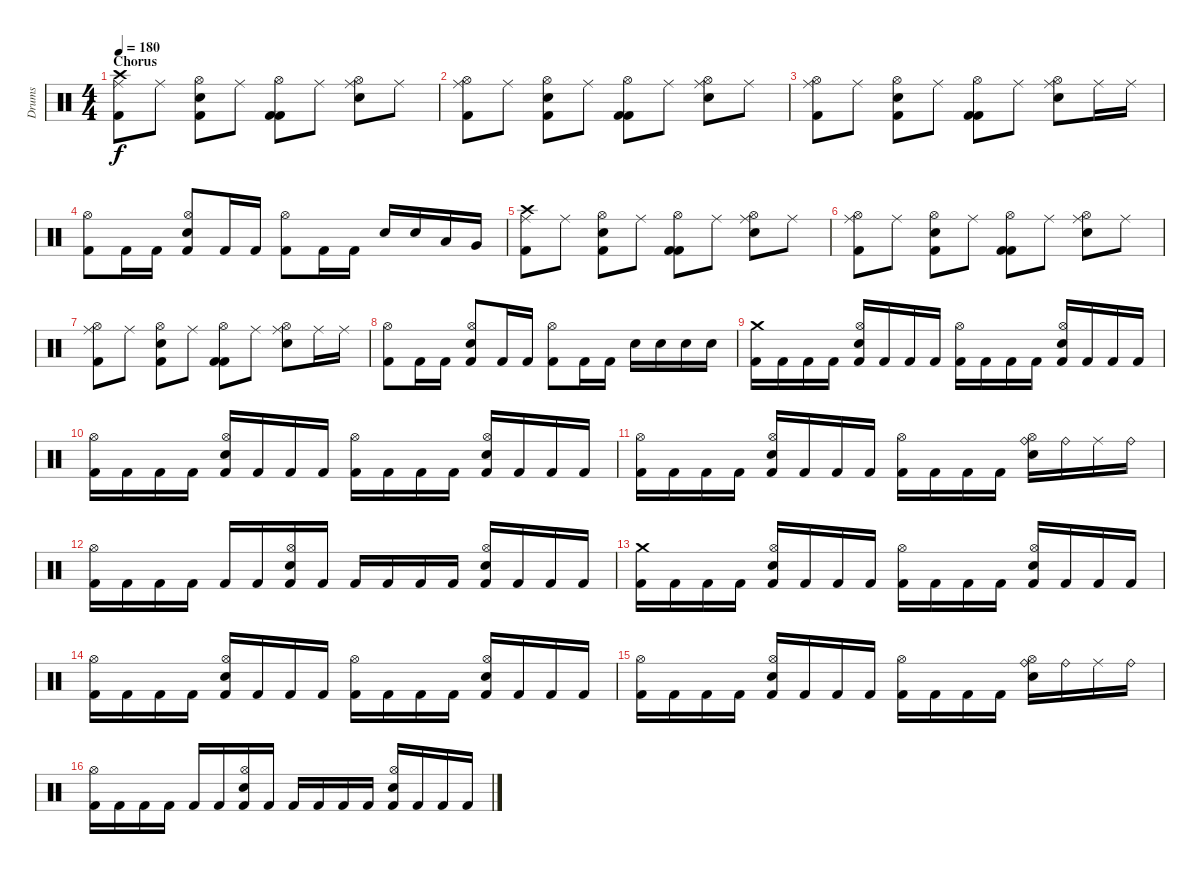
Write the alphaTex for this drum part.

\track ("Drums" "Drums") {instrument percussion}
\staff {score}
\articulation defaults
\ts (4 4)
\section ("" "Chorus")
\tempo 180
\clef neutral
\ks c
("Ride (middle)" "Crash high (hit)" "Kick (hit) 2").8{dy f} "Ride (middle)".8 ("Kick (hit) 2" "Hi-Hat (open)" "Electric Snare (hit)").8 "Ride (middle)".8 ("Kick (hit) 2" "Hi-Hat (open)" "Kick (hit) 2").8 "Ride (middle)".8 ("Ride (middle)" "Hi-Hat (open)" "Electric Snare (hit)").8 "Ride (middle)".8 |
("Ride (middle)" "Hi-Hat (open)" "Kick (hit) 2").8 "Ride (middle)".8 ("Kick (hit) 2" "Hi-Hat (open)" "Electric Snare (hit)").8 "Ride (middle)".8 ("Kick (hit) 2" "Hi-Hat (open)" "Kick (hit) 2").8 "Ride (middle)".8 ("Ride (middle)" "Hi-Hat (open)" "Electric Snare (hit)").8 "Ride (middle)".8 |
("Ride (middle)" "Hi-Hat (open)" "Kick (hit) 2").8 "Ride (middle)".8 ("Kick (hit) 2" "Hi-Hat (open)" "Electric Snare (hit)").8 "Ride (middle)".8 ("Kick (hit) 2" "Hi-Hat (open)" "Kick (hit) 2").8 "Ride (middle)".8 ("Ride (middle)" "Hi-Hat (open)" "Electric Snare (hit)").8 "Ride (middle)".16 "Ride (middle)".16 |
("Kick (hit) 2" "Hi-Hat (open)").8 "Kick (hit) 2".16 "Kick (hit) 2".16 ("Kick (hit) 2" "Electric Snare (hit)" "Hi-Hat (open)").8 "Kick (hit) 2".16 "Kick (hit) 2".16 ("Kick (hit) 2" "Hi-Hat (open)").8 "Kick (hit) 2".16 "Kick (hit) 2".16 "Electric Snare (hit)".16 "Electric Snare (hit)".16 "Low Tom (hit)".16 "Very Low Tom (hit)".16 |
("Ride (middle)" "Crash high (hit)" "Kick (hit) 2").8 "Ride (middle)".8 ("Kick (hit) 2" "Hi-Hat (open)" "Electric Snare (hit)").8 "Ride (middle)".8 ("Kick (hit) 2" "Hi-Hat (open)" "Kick (hit) 2").8 "Ride (middle)".8 ("Ride (middle)" "Hi-Hat (open)" "Electric Snare (hit)").8 "Ride (middle)".8 |
("Ride (middle)" "Hi-Hat (open)" "Kick (hit) 2").8 "Ride (middle)".8 ("Kick (hit) 2" "Hi-Hat (open)" "Electric Snare (hit)").8 "Ride (middle)".8 ("Kick (hit) 2" "Hi-Hat (open)" "Kick (hit) 2").8 "Ride (middle)".8 ("Ride (middle)" "Hi-Hat (open)" "Electric Snare (hit)").8 "Ride (middle)".8 |
("Ride (middle)" "Hi-Hat (open)" "Kick (hit) 2").8 "Ride (middle)".8 ("Kick (hit) 2" "Hi-Hat (open)" "Electric Snare (hit)").8 "Ride (middle)".8 ("Kick (hit) 2" "Hi-Hat (open)" "Kick (hit) 2").8 "Ride (middle)".8 ("Ride (middle)" "Hi-Hat (open)" "Electric Snare (hit)").8 "Ride (middle)".16 "Ride (middle)".16 |
("Kick (hit) 2" "Hi-Hat (open)").8 "Kick (hit) 2".16 "Kick (hit) 2".16 ("Kick (hit) 2" "Electric Snare (hit)" "Hi-Hat (open)").8 "Kick (hit) 2".16 "Kick (hit) 2".16 ("Kick (hit) 2" "Hi-Hat (open)").8 "Kick (hit) 2".16 "Kick (hit) 2".16 "Electric Snare (hit)".16 "Electric Snare (hit)".16 "Electric Snare (hit)".16 "Electric Snare (hit)".16 |
("Kick (hit) 2" "Crash medium (hit)").16 "Kick (hit) 2".16 "Kick (hit) 2".16 "Kick (hit) 2".16 ("Kick (hit) 2" "Hi-Hat (open)" "Electric Snare (hit)").16 "Kick (hit) 2".16 "Kick (hit) 2".16 "Kick (hit) 2".16 ("Kick (hit) 2" "Hi-Hat (open)").16 "Kick (hit) 2".16 "Kick (hit) 2".16 "Kick (hit) 2".16 ("Kick (hit) 2" "Hi-Hat (open)" "Electric Snare (hit)").16 "Kick (hit) 2".16 "Kick (hit) 2".16 "Kick (hit) 2".16 |
("Kick (hit) 2" "Hi-Hat (open)").16 "Kick (hit) 2".16 "Kick (hit) 2".16 "Kick (hit) 2".16 ("Kick (hit) 2" "Hi-Hat (open)" "Electric Snare (hit)").16 "Kick (hit) 2".16 "Kick (hit) 2".16 "Kick (hit) 2".16 ("Kick (hit) 2" "Hi-Hat (open)").16 "Kick (hit) 2".16 "Kick (hit) 2".16 "Kick (hit) 2".16 ("Kick (hit) 2" "Hi-Hat (open)" "Electric Snare (hit)").16 "Kick (hit) 2".16 "Kick (hit) 2".16 "Kick (hit) 2".16 |
("Kick (hit) 2" "Hi-Hat (open)").16 "Kick (hit) 2".16 "Kick (hit) 2".16 "Kick (hit) 2".16 ("Kick (hit) 2" "Hi-Hat (open)" "Electric Snare (hit)").16 "Kick (hit) 2".16 "Kick (hit) 2".16 "Kick (hit) 2".16 ("Kick (hit) 2" "Hi-Hat (open)").16 "Kick (hit) 2".16 "Kick (hit) 2".16 "Kick (hit) 2".16 ("Ride (bell)" "Hi-Hat (open)" "Electric Snare (hit)").16 "Ride (bell)".16 "Ride (middle)".16 "Ride (bell)".16 |
("Kick (hit) 2" "Hi-Hat (open)").16 "Kick (hit) 2".16 "Kick (hit) 2".16 "Kick (hit) 2".16 "Kick (hit) 2".16 "Kick (hit) 2".16 ("Kick (hit) 2" "Hi-Hat (open)" "Electric Snare (hit)").16 "Kick (hit) 2".16 "Kick (hit) 2".16 "Kick (hit) 2".16 "Kick (hit) 2".16 "Kick (hit) 2".16 ("Kick (hit) 2" "Hi-Hat (open)" "Electric Snare (hit)").16 "Kick (hit) 2".16 "Kick (hit) 2".16 "Kick (hit) 2".16 |
("Kick (hit) 2" "Crash medium (hit)").16 "Kick (hit) 2".16 "Kick (hit) 2".16 "Kick (hit) 2".16 ("Kick (hit) 2" "Hi-Hat (open)" "Electric Snare (hit)").16 "Kick (hit) 2".16 "Kick (hit) 2".16 "Kick (hit) 2".16 ("Kick (hit) 2" "Hi-Hat (open)").16 "Kick (hit) 2".16 "Kick (hit) 2".16 "Kick (hit) 2".16 ("Kick (hit) 2" "Hi-Hat (open)" "Electric Snare (hit)").16 "Kick (hit) 2".16 "Kick (hit) 2".16 "Kick (hit) 2".16 |
("Kick (hit) 2" "Hi-Hat (open)").16 "Kick (hit) 2".16 "Kick (hit) 2".16 "Kick (hit) 2".16 ("Kick (hit) 2" "Hi-Hat (open)" "Electric Snare (hit)").16 "Kick (hit) 2".16 "Kick (hit) 2".16 "Kick (hit) 2".16 ("Kick (hit) 2" "Hi-Hat (open)").16 "Kick (hit) 2".16 "Kick (hit) 2".16 "Kick (hit) 2".16 ("Kick (hit) 2" "Hi-Hat (open)" "Electric Snare (hit)").16 "Kick (hit) 2".16 "Kick (hit) 2".16 "Kick (hit) 2".16 |
("Kick (hit) 2" "Hi-Hat (open)").16 "Kick (hit) 2".16 "Kick (hit) 2".16 "Kick (hit) 2".16 ("Kick (hit) 2" "Hi-Hat (open)" "Electric Snare (hit)").16 "Kick (hit) 2".16 "Kick (hit) 2".16 "Kick (hit) 2".16 ("Kick (hit) 2" "Hi-Hat (open)").16 "Kick (hit) 2".16 "Kick (hit) 2".16 "Kick (hit) 2".16 ("Ride (bell)" "Hi-Hat (open)" "Electric Snare (hit)").16 "Ride (bell)".16 "Ride (middle)".16 "Ride (bell)".16 |
("Kick (hit) 2" "Hi-Hat (open)").16 "Kick (hit) 2".16 "Kick (hit) 2".16 "Kick (hit) 2".16 "Kick (hit) 2".16 "Kick (hit) 2".16 ("Kick (hit) 2" "Hi-Hat (open)" "Electric Snare (hit)").16 "Kick (hit) 2".16 "Kick (hit) 2".16 "Kick (hit) 2".16 "Kick (hit) 2".16 "Kick (hit) 2".16 ("Kick (hit) 2" "Hi-Hat (open)" "Electric Snare (hit)").16 "Kick (hit) 2".16 "Kick (hit) 2".16 "Kick (hit) 2".16
